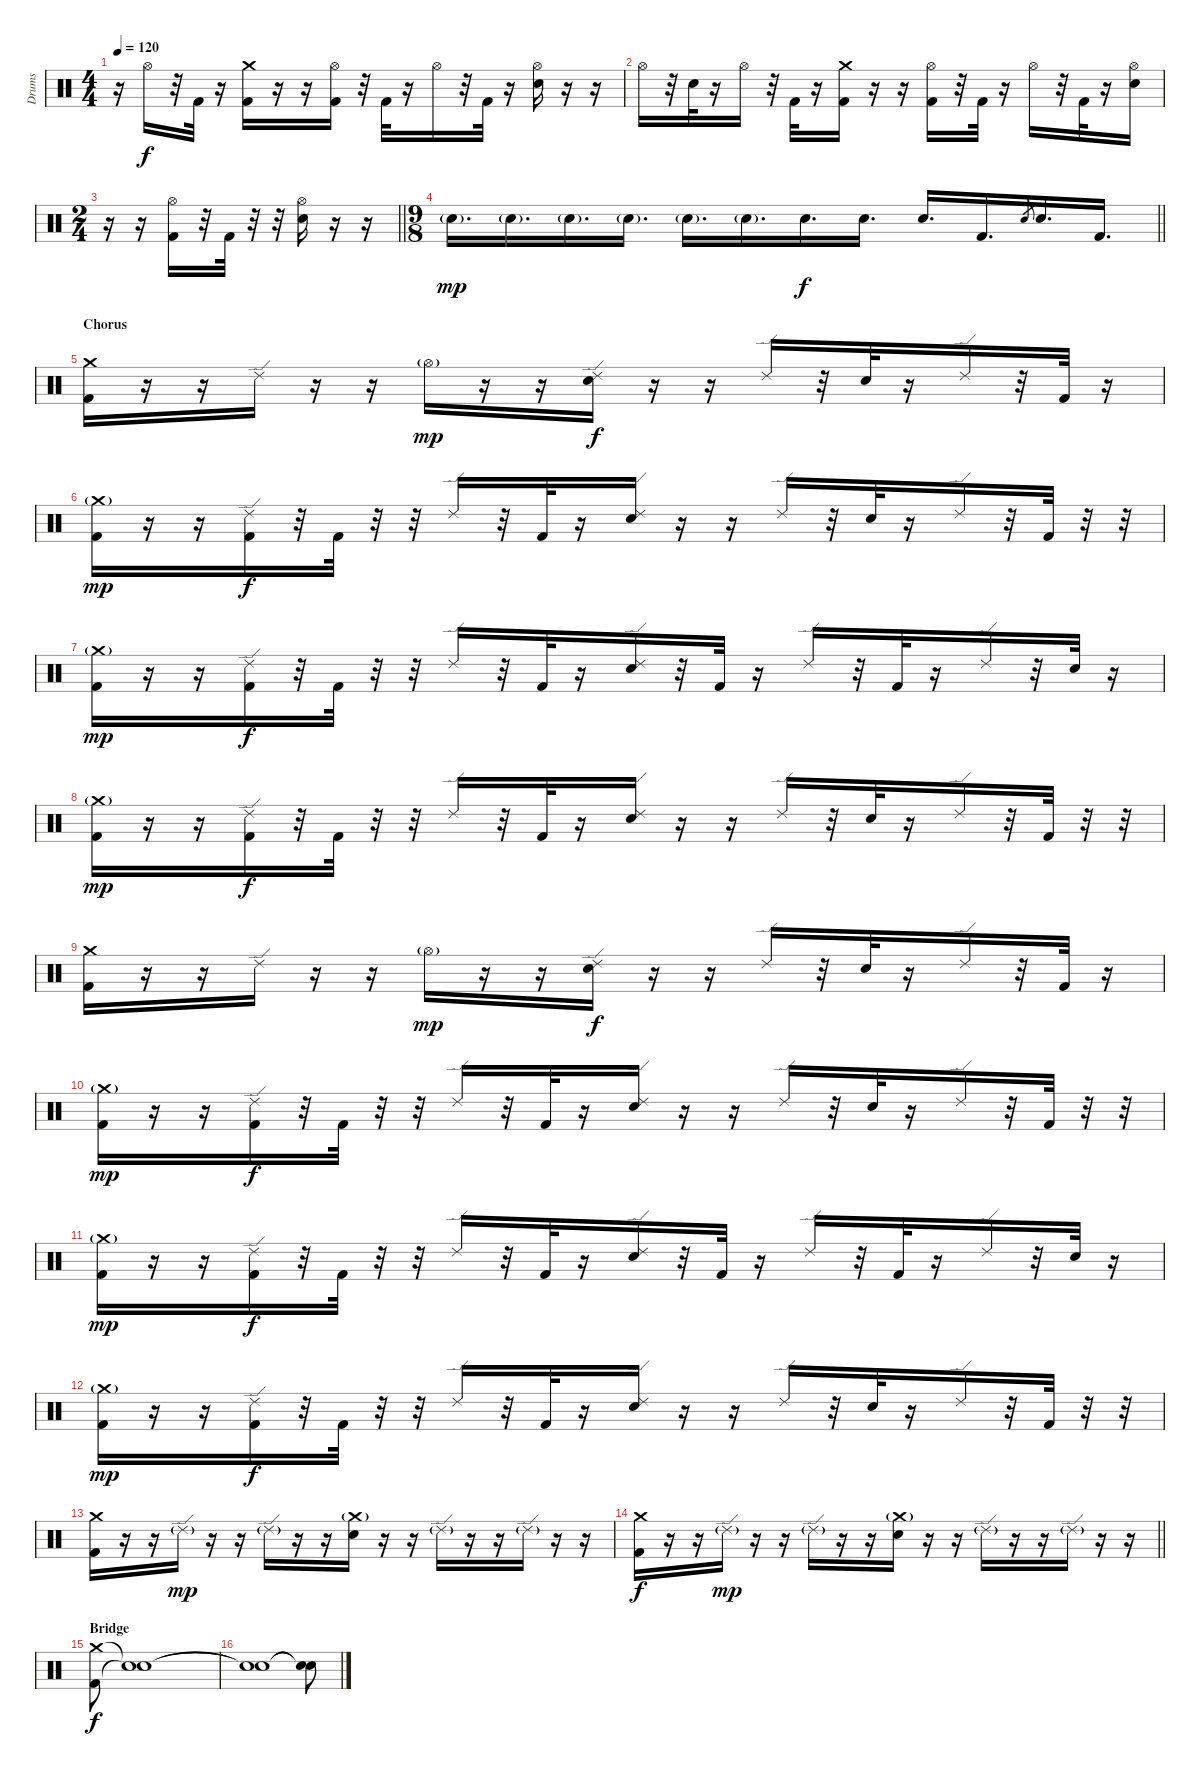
\track ("Drums" "Drums") {instrument percussion}
\staff {score}
\articulation defaults
\ts (4 4)
\tempo 120
\clef neutral
\ks c
r.16{dy f} "Hi-Hat (open)".16 r.32 "Kick (hit) 2".32 r.16 ("Crash medium (hit)" "Kick (hit) 2").16 r.16 r.16 ("Hi-Hat (open)" "Kick (hit) 2").16 r.32 "Kick (hit) 2".32 r.16 "Hi-Hat (open)".16 r.32 "Kick (hit) 2".32 r.16 ("Hi-Hat (open)" "Electric Snare (hit)").16 r.16 r.16 |
"Hi-Hat (open)".16 r.32 "Electric Snare (hit)".32 r.16 "Hi-Hat (open)".16 r.32 "Kick (hit) 2".32 r.16 ("Crash medium (hit)" "Kick (hit) 2").16 r.16 r.16 ("Hi-Hat (open)" "Kick (hit) 2").16 r.32 "Kick (hit) 2".32 r.16 "Hi-Hat (open)".16 r.32 "Kick (hit) 2".32 r.16 ("Hi-Hat (open)" "Electric Snare (hit)").16 |
\ts (2 4)
\barLineRight lightlight
r.16 r.16 ("Hi-Hat (open)" "Kick (hit) 2").16 r.32 "Kick (hit) 2".32 r.32 r.32 ("Hi-Hat (open)" "Electric Snare (hit)").16 r.16 r.16 |
\ts (9 8)
\barLineRight lightlight "Electric Snare (hit)"{g}.16{d dy mp} "Electric Snare (hit)"{g}.16{d} "Electric Snare (hit)"{g}.16{d} "Electric Snare (hit)"{g}.16{d} "Electric Snare (hit)"{g}.16{d} "Electric Snare (hit)"{g}.16{d} "Electric Snare (hit)".16{d dy f} "Electric Snare (hit)".16{d} "Electric Snare (hit)".16{d} "Kick (hit) 2".16{d} "Electric Snare (hit)".8{gr} "Electric Snare (hit)".16{d} "Kick (hit) 2".16{d}
|
\section ("" "Chorus")
("Crash medium (hit)" "Kick (hit) 2").16 r.16 r.16 "Ride (edge) 2".16 r.16 r.16 "Hi-Hat (open)"{g}.16{dy mp} r.16 r.16 ("Ride (edge) 2" "Electric Snare (hit)").16{dy f} r.16 r.16 "Ride (edge) 2".16 r.32 "Electric Snare (hit)".32 r.16 "Ride (edge) 2".16 r.32 "Kick (hit) 2".32 r.16 |
("Crash medium (hit)"{g} "Kick (hit) 2").16{dy mp} r.16 r.16 ("Ride (edge) 2" "Kick (hit) 2").16{dy f} r.32 "Kick (hit) 2".32 r.32 r.32 "Ride (edge) 2".16 r.32 "Kick (hit) 2".32 r.16 ("Ride (edge) 2" "Electric Snare (hit)").16 r.16 r.16 "Ride (edge) 2".16 r.32 "Electric Snare (hit)".32 r.16 "Ride (edge) 2".16 r.32 "Kick (hit) 2".32 r.32 r.32 |
("Crash medium (hit)"{g} "Kick (hit) 2").16{dy mp} r.16 r.16 ("Ride (edge) 2" "Kick (hit) 2").16{dy f} r.32 "Kick (hit) 2".32 r.32 r.32 "Ride (edge) 2".16 r.32 "Kick (hit) 2".32 r.16 ("Ride (edge) 2" "Electric Snare (hit)").16 r.32 "Kick (hit) 2".32 r.16 "Ride (edge) 2".16 r.32 "Kick (hit) 2".32 r.16 "Ride (edge) 2".16 r.32 "Electric Snare (hit)".32 r.16 |
("Crash medium (hit)"{g} "Kick (hit) 2").16{dy mp} r.16 r.16 ("Ride (edge) 2" "Kick (hit) 2").16{dy f} r.32 "Kick (hit) 2".32 r.32 r.32 "Ride (edge) 2".16 r.32 "Kick (hit) 2".32 r.16 ("Ride (edge) 2" "Electric Snare (hit)").16 r.16 r.16 "Ride (edge) 2".16 r.32 "Electric Snare (hit)".32 r.16 "Ride (edge) 2".16 r.32 "Kick (hit) 2".32 r.32 r.32 |
("Crash medium (hit)" "Kick (hit) 2").16 r.16 r.16 "Ride (edge) 2".16 r.16 r.16 "Hi-Hat (open)"{g}.16{dy mp} r.16 r.16 ("Ride (edge) 2" "Electric Snare (hit)").16{dy f} r.16 r.16 "Ride (edge) 2".16 r.32 "Electric Snare (hit)".32 r.16 "Ride (edge) 2".16 r.32 "Kick (hit) 2".32 r.16 |
("Crash medium (hit)"{g} "Kick (hit) 2").16{dy mp} r.16 r.16 ("Ride (edge) 2" "Kick (hit) 2").16{dy f} r.32 "Kick (hit) 2".32 r.32 r.32 "Ride (edge) 2".16 r.32 "Kick (hit) 2".32 r.16 ("Ride (edge) 2" "Electric Snare (hit)").16 r.16 r.16 "Ride (edge) 2".16 r.32 "Electric Snare (hit)".32 r.16 "Ride (edge) 2".16 r.32 "Kick (hit) 2".32 r.32 r.32 |
("Crash medium (hit)"{g} "Kick (hit) 2").16{dy mp} r.16 r.16 ("Ride (edge) 2" "Kick (hit) 2").16{dy f} r.32 "Kick (hit) 2".32 r.32 r.32 "Ride (edge) 2".16 r.32 "Kick (hit) 2".32 r.16 ("Ride (edge) 2" "Electric Snare (hit)").16 r.32 "Kick (hit) 2".32 r.16 "Ride (edge) 2".16 r.32 "Kick (hit) 2".32 r.16 "Ride (edge) 2".16 r.32 "Electric Snare (hit)".32 r.16 |
("Crash medium (hit)"{g} "Kick (hit) 2").16{dy mp} r.16 r.16 ("Ride (edge) 2" "Kick (hit) 2").16{dy f} r.32 "Kick (hit) 2".32 r.32 r.32 "Ride (edge) 2".16 r.32 "Kick (hit) 2".32 r.16 ("Ride (edge) 2" "Electric Snare (hit)").16 r.16 r.16 "Ride (edge) 2".16 r.32 "Electric Snare (hit)".32 r.16 "Ride (edge) 2".16 r.32 "Kick (hit) 2".32 r.32 r.32 |
("Crash medium (hit)" "Kick (hit) 2").16 r.16 r.16 "Ride (edge) 2"{g}.16{dy mp} r.16 r.16 "Ride (edge) 2"{g}.16 r.16 r.16 ("Crash medium (hit)"{g} "Electric Snare (hit)").16 r.16 r.16 "Ride (edge) 2"{g}.16 r.16 r.16 "Ride (edge) 2"{g}.16 r.16 r.16 |
\barLineRight lightlight
("Crash medium (hit)" "Kick (hit) 2").16{dy f} r.16 r.16 "Ride (edge) 2"{g}.16{dy mp} r.16 r.16 "Ride (edge) 2"{g}.16 r.16 r.16 ("Crash medium (hit)"{g} "Electric Snare (hit)").16 r.16 r.16 "Ride (edge) 2"{g}.16 r.16 r.16 "Ride (edge) 2"{g}.16 r.16 r.16 |
\section ("" "Bridge")
("Crash medium (hit)" "Kick (hit) 2").8{dy f} ("Snare (hit)"{t} "Snare (hit)"{t}).1 |
("Snare (hit)"{t} "Snare (hit)"{t}).1 ("Snare (hit)"{t} "Snare (hit)"{t}).8
